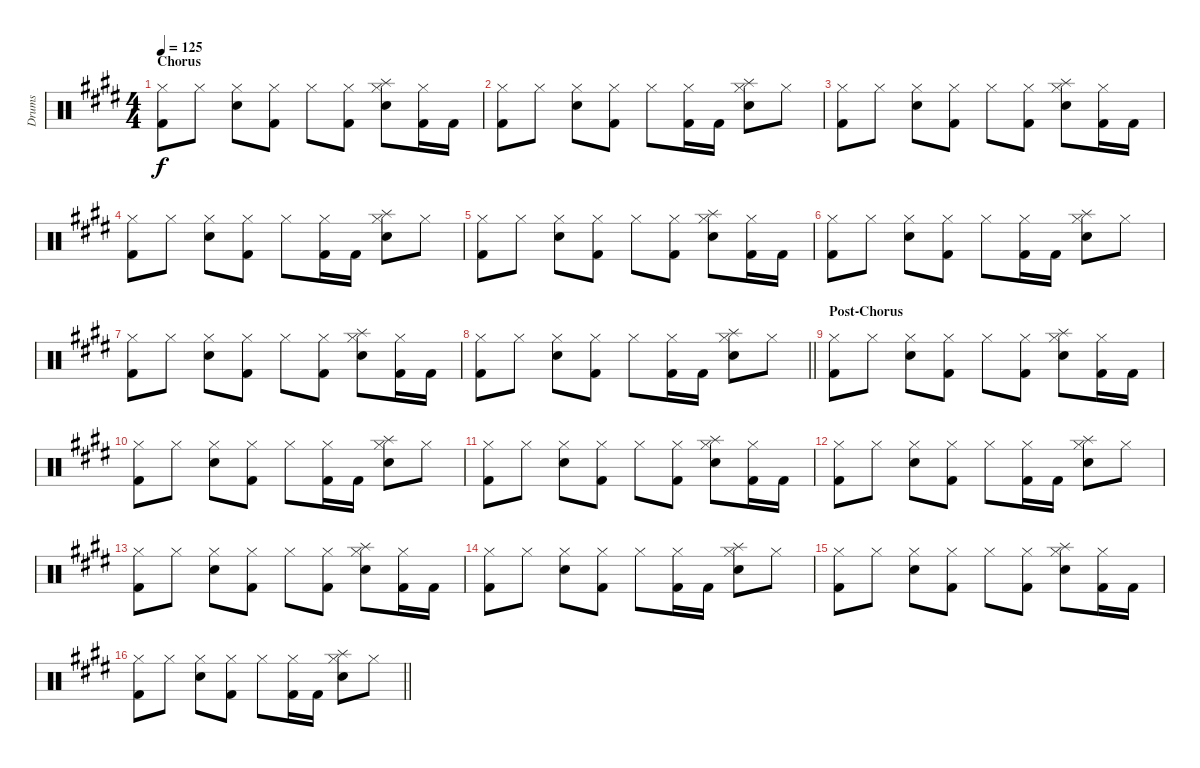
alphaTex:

\track ("Drums" "Drums") {instrument percussion}
\staff {score}
\articulation defaults
\ts (4 4)
\section ("" "Chorus")
\tempo 125
\clef neutral
\ks c#minor
("Hi-Hat (closed)" "Kick (hit) 2").8{dy f} "Hi-Hat (closed)".8 ("Hi-Hat (closed)" "Snare (hit) 2").8 ("Hi-Hat (closed)" "Kick (hit) 2").8 "Hi-Hat (closed)".8 ("Hi-Hat (closed)" "Kick (hit) 2").8 ("Hi-Hat (closed)" "Snare (hit) 2" "Splash (hit)").8 ("Hi-Hat (closed)" "Kick (hit) 2").16 "Kick (hit) 2".16 |
("Hi-Hat (closed)" "Kick (hit) 2").8 "Hi-Hat (closed)".8 ("Hi-Hat (closed)" "Snare (hit) 2").8 ("Hi-Hat (closed)" "Kick (hit) 2").8 "Hi-Hat (closed)".8 ("Hi-Hat (closed)" "Kick (hit) 2").16 "Kick (hit) 2".16 ("Hi-Hat (closed)" "Snare (hit) 2" "Splash (hit)").8 "Hi-Hat (closed)".8 |
("Hi-Hat (closed)" "Kick (hit) 2").8 "Hi-Hat (closed)".8 ("Hi-Hat (closed)" "Snare (hit) 2").8 ("Hi-Hat (closed)" "Kick (hit) 2").8 "Hi-Hat (closed)".8 ("Hi-Hat (closed)" "Kick (hit) 2").8 ("Hi-Hat (closed)" "Snare (hit) 2" "Splash (hit)").8 ("Hi-Hat (closed)" "Kick (hit) 2").16 "Kick (hit) 2".16 |
("Hi-Hat (closed)" "Kick (hit) 2").8 "Hi-Hat (closed)".8 ("Hi-Hat (closed)" "Snare (hit) 2").8 ("Hi-Hat (closed)" "Kick (hit) 2").8 "Hi-Hat (closed)".8 ("Hi-Hat (closed)" "Kick (hit) 2").16 "Kick (hit) 2".16 ("Hi-Hat (closed)" "Snare (hit) 2" "Splash (hit)").8 "Hi-Hat (closed)".8 |
("Hi-Hat (closed)" "Kick (hit) 2").8 "Hi-Hat (closed)".8 ("Hi-Hat (closed)" "Snare (hit) 2").8 ("Hi-Hat (closed)" "Kick (hit) 2").8 "Hi-Hat (closed)".8 ("Hi-Hat (closed)" "Kick (hit) 2").8 ("Hi-Hat (closed)" "Snare (hit) 2" "Splash (hit)").8 ("Hi-Hat (closed)" "Kick (hit) 2").16 "Kick (hit) 2".16 |
("Hi-Hat (closed)" "Kick (hit) 2").8 "Hi-Hat (closed)".8 ("Hi-Hat (closed)" "Snare (hit) 2").8 ("Hi-Hat (closed)" "Kick (hit) 2").8 "Hi-Hat (closed)".8 ("Hi-Hat (closed)" "Kick (hit) 2").16 "Kick (hit) 2".16 ("Hi-Hat (closed)" "Snare (hit) 2" "Splash (hit)").8 "Hi-Hat (closed)".8 |
("Hi-Hat (closed)" "Kick (hit) 2").8 "Hi-Hat (closed)".8 ("Hi-Hat (closed)" "Snare (hit) 2").8 ("Hi-Hat (closed)" "Kick (hit) 2").8 "Hi-Hat (closed)".8 ("Hi-Hat (closed)" "Kick (hit) 2").8 ("Hi-Hat (closed)" "Snare (hit) 2" "Splash (hit)").8 ("Hi-Hat (closed)" "Kick (hit) 2").16 "Kick (hit) 2".16 |
\barLineRight lightlight
("Hi-Hat (closed)" "Kick (hit) 2").8 "Hi-Hat (closed)".8 ("Hi-Hat (closed)" "Snare (hit) 2").8 ("Hi-Hat (closed)" "Kick (hit) 2").8 "Hi-Hat (closed)".8 ("Hi-Hat (closed)" "Kick (hit) 2").16 "Kick (hit) 2".16 ("Hi-Hat (closed)" "Snare (hit) 2" "Splash (hit)").8 "Hi-Hat (closed)".8 |
\section ("" "Post-Chorus")
("Hi-Hat (closed)" "Kick (hit) 2").8 "Hi-Hat (closed)".8 ("Hi-Hat (closed)" "Snare (hit) 2").8 ("Hi-Hat (closed)" "Kick (hit) 2").8 "Hi-Hat (closed)".8 ("Hi-Hat (closed)" "Kick (hit) 2").8 ("Hi-Hat (closed)" "Snare (hit) 2" "Splash (hit)").8 ("Hi-Hat (closed)" "Kick (hit) 2").16 "Kick (hit) 2".16 |
("Hi-Hat (closed)" "Kick (hit) 2").8 "Hi-Hat (closed)".8 ("Hi-Hat (closed)" "Snare (hit) 2").8 ("Hi-Hat (closed)" "Kick (hit) 2").8 "Hi-Hat (closed)".8 ("Hi-Hat (closed)" "Kick (hit) 2").16 "Kick (hit) 2".16 ("Hi-Hat (closed)" "Snare (hit) 2" "Splash (hit)").8 "Hi-Hat (closed)".8 |
("Hi-Hat (closed)" "Kick (hit) 2").8 "Hi-Hat (closed)".8 ("Hi-Hat (closed)" "Snare (hit) 2").8 ("Hi-Hat (closed)" "Kick (hit) 2").8 "Hi-Hat (closed)".8 ("Hi-Hat (closed)" "Kick (hit) 2").8 ("Hi-Hat (closed)" "Snare (hit) 2" "Splash (hit)").8 ("Hi-Hat (closed)" "Kick (hit) 2").16 "Kick (hit) 2".16 |
("Hi-Hat (closed)" "Kick (hit) 2").8 "Hi-Hat (closed)".8 ("Hi-Hat (closed)" "Snare (hit) 2").8 ("Hi-Hat (closed)" "Kick (hit) 2").8 "Hi-Hat (closed)".8 ("Hi-Hat (closed)" "Kick (hit) 2").16 "Kick (hit) 2".16 ("Hi-Hat (closed)" "Snare (hit) 2" "Splash (hit)").8 "Hi-Hat (closed)".8 |
("Hi-Hat (closed)" "Kick (hit) 2").8 "Hi-Hat (closed)".8 ("Hi-Hat (closed)" "Snare (hit) 2").8 ("Hi-Hat (closed)" "Kick (hit) 2").8 "Hi-Hat (closed)".8 ("Hi-Hat (closed)" "Kick (hit) 2").8 ("Hi-Hat (closed)" "Snare (hit) 2" "Splash (hit)").8 ("Hi-Hat (closed)" "Kick (hit) 2").16 "Kick (hit) 2".16 |
("Hi-Hat (closed)" "Kick (hit) 2").8 "Hi-Hat (closed)".8 ("Hi-Hat (closed)" "Snare (hit) 2").8 ("Hi-Hat (closed)" "Kick (hit) 2").8 "Hi-Hat (closed)".8 ("Hi-Hat (closed)" "Kick (hit) 2").16 "Kick (hit) 2".16 ("Hi-Hat (closed)" "Snare (hit) 2" "Splash (hit)").8 "Hi-Hat (closed)".8 |
("Hi-Hat (closed)" "Kick (hit) 2").8 "Hi-Hat (closed)".8 ("Hi-Hat (closed)" "Snare (hit) 2").8 ("Hi-Hat (closed)" "Kick (hit) 2").8 "Hi-Hat (closed)".8 ("Hi-Hat (closed)" "Kick (hit) 2").8 ("Hi-Hat (closed)" "Snare (hit) 2" "Splash (hit)").8 ("Hi-Hat (closed)" "Kick (hit) 2").16 "Kick (hit) 2".16 |
\barLineRight lightlight
("Hi-Hat (closed)" "Kick (hit) 2").8 "Hi-Hat (closed)".8 ("Hi-Hat (closed)" "Snare (hit) 2").8 ("Hi-Hat (closed)" "Kick (hit) 2").8 "Hi-Hat (closed)".8 ("Hi-Hat (closed)" "Kick (hit) 2").16 "Kick (hit) 2".16 ("Hi-Hat (closed)" "Snare (hit) 2" "Splash (hit)").8 "Hi-Hat (closed)".8
